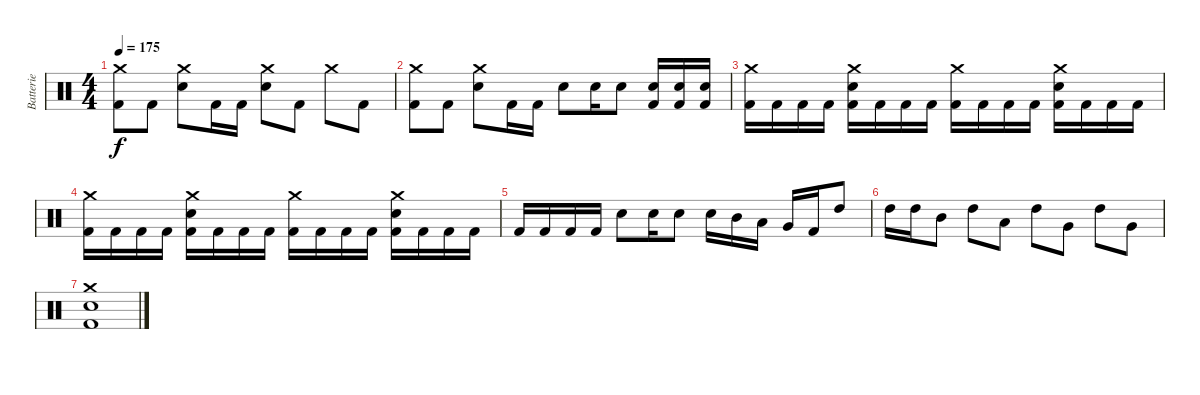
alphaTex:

\track ("Batterie" "Batterie") {instrument percussion}
\staff {score}
\articulation defaults
\ts (4 4)
\tempo 175
\clef neutral
\ks c
("Crash medium (hit)" "Kick (hit) 2").8{dy f} "Kick (hit) 2".8 ("Crash medium (hit)" "Electric Snare (hit)").8 "Kick (hit) 2".16 "Kick (hit) 2".16 ("Crash medium (hit)" "Electric Snare (hit)").8 "Kick (hit) 2".8 "Crash medium (hit)".8 "Kick (hit) 2".8 |
("Crash medium (hit)" "Kick (hit) 2").8 "Kick (hit) 2".8 ("Crash medium (hit)" "Electric Snare (hit)").8 "Kick (hit) 2".16 "Kick (hit) 2".16 "Electric Snare (hit)".8 "Electric Snare (hit)".16 "Electric Snare (hit)".8 ("Electric Snare (hit)" "Kick (hit) 2").16 ("Electric Snare (hit)" "Kick (hit) 2").16 ("Electric Snare (hit)" "Kick (hit) 2").16 |
("Crash medium (hit)" "Kick (hit) 2").16 "Kick (hit) 2".16 "Kick (hit) 2".16 "Kick (hit) 2".16 ("Crash medium (hit)" "Electric Snare (hit)" "Kick (hit) 2").16 "Kick (hit) 2".16 "Kick (hit) 2".16 "Kick (hit) 2".16 ("Crash medium (hit)" "Kick (hit) 2").16 "Kick (hit) 2".16 "Kick (hit) 2".16 "Kick (hit) 2".16 ("Crash medium (hit)" "Electric Snare (hit)" "Kick (hit) 2").16 "Kick (hit) 2".16 "Kick (hit) 2".16 "Kick (hit) 2".16 |
("Crash medium (hit)" "Kick (hit) 2").16 "Kick (hit) 2".16 "Kick (hit) 2".16 "Kick (hit) 2".16 ("Crash medium (hit)" "Electric Snare (hit)" "Kick (hit) 2").16 "Kick (hit) 2".16 "Kick (hit) 2".16 "Kick (hit) 2".16 ("Crash medium (hit)" "Kick (hit) 2").16 "Kick (hit) 2".16 "Kick (hit) 2".16 "Kick (hit) 2".16 ("Crash medium (hit)" "Electric Snare (hit)" "Kick (hit) 2").16 "Kick (hit) 2".16 "Kick (hit) 2".16 "Kick (hit) 2".16 |
"Kick (hit) 2".16 "Kick (hit) 2".16 "Kick (hit) 2".16 "Kick (hit) 2".16 "Electric Snare (hit)".8 "Electric Snare (hit)".16 "Electric Snare (hit)".8 "Electric Snare (hit)".16 "Mid Tom (hit)".16 "Low Tom (hit)".16 "Very Low Tom (hit)".16 "Kick (hit) 2".16 "High Tom (hit)".8 |
"High Tom (hit)".16 "High Tom (hit)".16 "Mid Tom (hit)".8 "High Tom (hit)".8 "Low Tom (hit)".8 "High Tom (hit)".8 "Very Low Tom (hit)".8 "High Tom (hit)".8 "Very Low Tom (hit)".8 |
("Crash medium (hit)" "Electric Snare (hit)" "Kick (hit) 2").1
